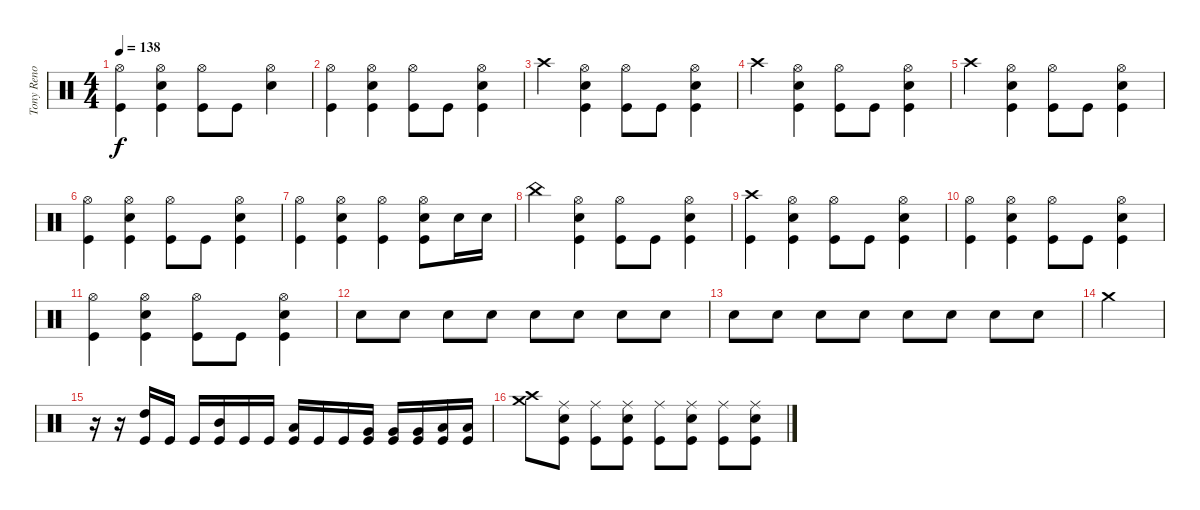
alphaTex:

\track ("Tony Reno" "Tony Reno") {instrument percussion}
\staff {score}
\articulation defaults
\ts (4 4)
\tempo 138
\clef neutral
\ks c
("Hi-Hat (open)" "Kick (hit)").4{dy f} ("Snare (hit) 2" "Hi-Hat (open)" "Kick (hit)").4 ("Hi-Hat (open)" "Kick (hit)").8 "Kick (hit)".8 ("Snare (hit) 2" "Hi-Hat (open)").4 |
("Hi-Hat (open)" "Kick (hit)").4 ("Snare (hit) 2" "Hi-Hat (open)" "Kick (hit)").4 ("Hi-Hat (open)" "Kick (hit)").8 "Kick (hit)".8 ("Snare (hit) 2" "Hi-Hat (open)" "Kick (hit)").4 |
"Crash high (hit)".4 ("Snare (hit) 2" "Hi-Hat (open)" "Kick (hit)").4 ("Hi-Hat (open)" "Kick (hit)").8 "Kick (hit)".8 ("Snare (hit) 2" "Hi-Hat (open)" "Kick (hit)").4 |
"Crash high (hit)".4 ("Snare (hit) 2" "Hi-Hat (open)" "Kick (hit)").4 ("Hi-Hat (open)" "Kick (hit)").8 "Kick (hit)".8 ("Snare (hit) 2" "Hi-Hat (open)" "Kick (hit)").4 |
"Crash high (hit)".4 ("Snare (hit) 2" "Hi-Hat (open)" "Kick (hit)").4 ("Hi-Hat (open)" "Kick (hit)").8 "Kick (hit)".8 ("Snare (hit) 2" "Hi-Hat (open)" "Kick (hit)").4 |
("Hi-Hat (open)" "Kick (hit)").4 ("Snare (hit) 2" "Hi-Hat (open)" "Kick (hit)").4 ("Hi-Hat (open)" "Kick (hit)").8 "Kick (hit)".8 ("Snare (hit) 2" "Hi-Hat (open)" "Kick (hit)").4 |
("Hi-Hat (open)" "Kick (hit)").4 ("Snare (hit) 2" "Hi-Hat (open)" "Kick (hit)").4 ("Hi-Hat (open)" "Kick (hit)").4 ("Snare (hit) 2" "Hi-Hat (open)" "Kick (hit)").8 "Snare (hit) 2".16 "Snare (hit) 2".16 |
"China (hit)".4 ("Snare (hit) 2" "Hi-Hat (open)" "Kick (hit)").4 ("Hi-Hat (open)" "Kick (hit)").8 "Kick (hit)".8 ("Snare (hit) 2" "Hi-Hat (open)" "Kick (hit)").4 |
("Crash high (hit)" "Kick (hit)").4 ("Snare (hit) 2" "Hi-Hat (open)" "Kick (hit)").4 ("Hi-Hat (open)" "Kick (hit)").8 "Kick (hit)".8 ("Snare (hit) 2" "Hi-Hat (open)" "Kick (hit)").4 |
("Hi-Hat (open)" "Kick (hit)").4 ("Snare (hit) 2" "Hi-Hat (open)" "Kick (hit)").4 ("Hi-Hat (open)" "Kick (hit)").8 "Kick (hit)".8 ("Snare (hit) 2" "Hi-Hat (open)" "Kick (hit)").4 |
("Hi-Hat (open)" "Kick (hit)").4 ("Snare (hit) 2" "Hi-Hat (open)" "Kick (hit)").4 ("Hi-Hat (open)" "Kick (hit)").8 "Kick (hit)".8 ("Snare (hit) 2" "Hi-Hat (open)" "Kick (hit)").4 |
"Snare (hit) 2".8 "Snare (hit) 2".8 "Snare (hit) 2".8 "Snare (hit) 2".8 "Snare (hit) 2".8 "Snare (hit) 2".8 "Snare (hit) 2".8 "Snare (hit) 2".8 |
"Snare (hit) 2".8 "Snare (hit) 2".8 "Snare (hit) 2".8 "Snare (hit) 2".8 "Snare (hit) 2".8 "Snare (hit) 2".8 "Snare (hit) 2".8 "Snare (hit) 2".8 |
"Crash medium (hit)".4 |
r.16 r.16 ("High Tom (hit)" "Kick (hit)").16 "Kick (hit)".16 "Kick (hit)".16 ("Mid Tom (hit)" "Kick (hit)").16 "Kick (hit)".16 "Kick (hit)".16 ("Low Tom (hit)" "Kick (hit)").16 "Kick (hit)".16 "Kick (hit)".16 ("Kick (hit)" "Very Low Tom (hit)").16 ("Kick (hit)" "Very Low Tom (hit)").16 ("Kick (hit)" "Very Low Tom (hit)").16 ("Low Floor Tom (hit)" "Kick (hit)").16 ("Low Floor Tom (hit)" "Kick (hit)").16 |
("Crash high (hit)" "Crash medium (hit)").8 ("Ride (middle)" "Snare (hit) 2" "Kick (hit)").8 ("Ride (middle)" "Kick (hit)").8 ("Ride (middle)" "Snare (hit) 2" "Kick (hit)").8 ("Ride (middle)" "Kick (hit)").8 ("Snare (hit) 2" "Ride (middle)" "Kick (hit)").8 ("Ride (middle)" "Kick (hit)").8 ("Snare (hit) 2" "Ride (middle)" "Kick (hit)").8
